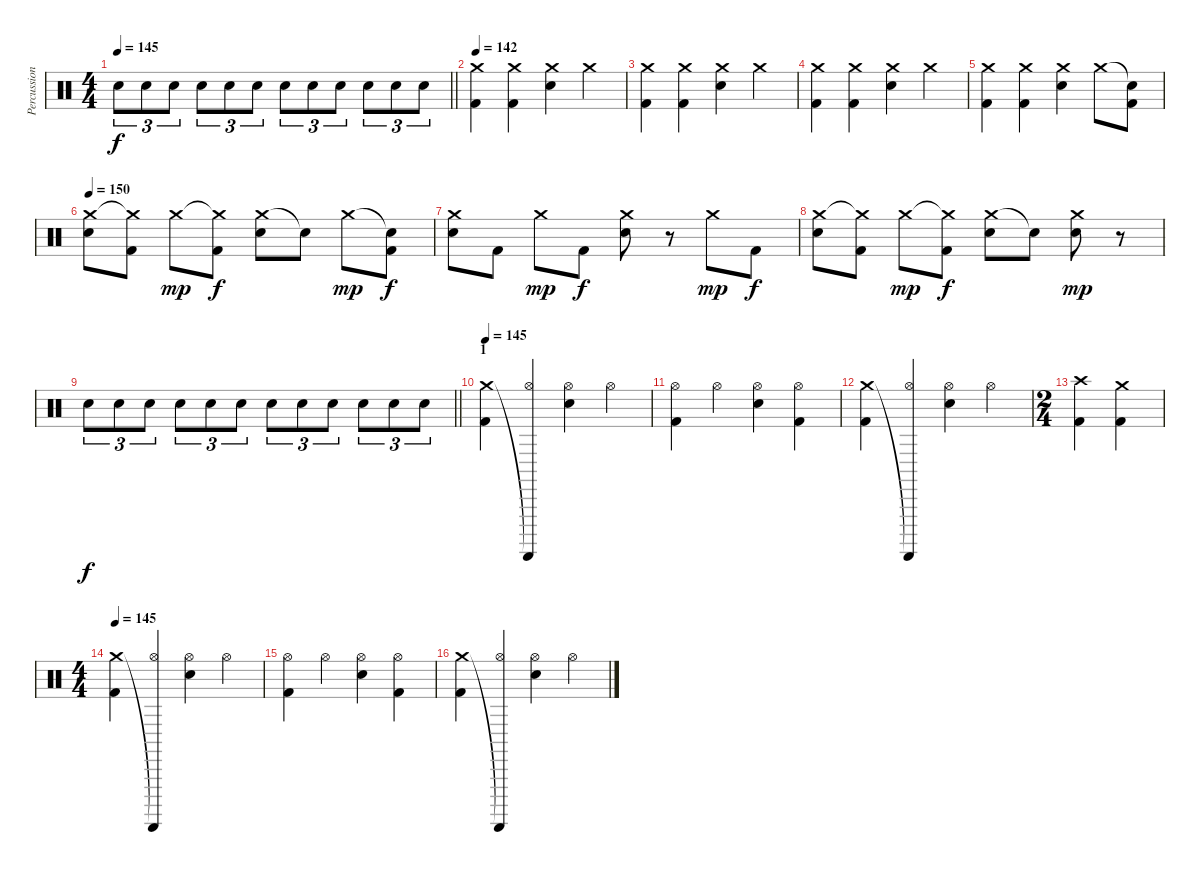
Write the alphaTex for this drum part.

\track ("Percussion" "Percussion") {instrument percussion}
\staff {score}
\articulation defaults
\ts (4 4)
\tempo 145
\clef neutral
\barLineRight lightlight
\ks c "Electric Snare (hit)".8{tu (3 2) dy f} "Electric Snare (hit)".8{tu (3 2)} "Electric Snare (hit)".8{tu (3 2)} "Electric Snare (hit)".8{tu (3 2)} "Electric Snare (hit)".8{tu (3 2)} "Electric Snare (hit)".8{tu (3 2)} "Electric Snare (hit)".8{tu (3 2)} "Electric Snare (hit)".8{tu (3 2)} "Electric Snare (hit)".8{tu (3 2)} "Electric Snare (hit)".8{tu (3 2)} "Electric Snare (hit)".8{tu (3 2)} "Electric Snare (hit)".8{tu (3 2)}
|
\section ("" "")
\tempo 150
\tempo 142
("Crash medium (hit)" "Kick (hit) 2").4 ("Crash medium (hit)" "Kick (hit) 2").4 ("Crash medium (hit)" "Electric Snare (hit)").4 "Crash medium (hit)".4 |
("Crash medium (hit)" "Kick (hit) 2").4 ("Crash medium (hit)" "Kick (hit) 2").4 ("Crash medium (hit)" "Electric Snare (hit)").4 "Crash medium (hit)".4 |
("Crash medium (hit)" "Kick (hit) 2").4 ("Crash medium (hit)" "Kick (hit) 2").4 ("Crash medium (hit)" "Electric Snare (hit)").4 "Crash medium (hit)".4 |
("Crash medium (hit)" "Kick (hit) 2").4 ("Crash medium (hit)" "Kick (hit) 2").4 ("Crash medium (hit)" "Electric Snare (hit)").4 "Crash medium (hit)".8 ("Snare (hit)"{t} "Kick (hit) 2").8 |
\tempo 150
("Crash medium (hit)" "Electric Snare (hit)").8 ("Crash medium (hit)"{t} "Kick (hit) 2").8 "Crash medium (hit)".8{dy mp} ("Crash medium (hit)"{t} "Kick (hit) 2").8{dy f} ("Crash medium (hit)" "Electric Snare (hit)").8 "Snare (hit)"{t}.8 "Crash medium (hit)".8{dy mp} ("Snare (hit)"{t} "Kick (hit) 2").8{dy f} |
("Crash medium (hit)" "Electric Snare (hit)").8 "Kick (hit) 2".8 "Crash medium (hit)".8{dy mp} "Kick (hit) 2".8{dy f} ("Crash medium (hit)" "Electric Snare (hit)").8 r.8 "Crash medium (hit)".8{dy mp} "Kick (hit) 2".8{dy f} |
("Crash medium (hit)" "Electric Snare (hit)").8 ("Crash medium (hit)"{t} "Kick (hit) 2").8 "Crash medium (hit)".8{dy mp} ("Crash medium (hit)"{t} "Kick (hit) 2").8{dy f} ("Crash medium (hit)" "Electric Snare (hit)").8 "Snare (hit)"{t}.8 ("Crash medium (hit)" "Electric Snare (hit)").8{dy mp} r.8 |
\barLineRight lightlight "Electric Snare (hit)".8{tu (3 2) dy f} "Electric Snare (hit)".8{tu (3 2)} "Electric Snare (hit)".8{tu (3 2)} "Electric Snare (hit)".8{tu (3 2)} "Electric Snare (hit)".8{tu (3 2)} "Electric Snare (hit)".8{tu (3 2)} "Electric Snare (hit)".8{tu (3 2)} "Electric Snare (hit)".8{tu (3 2)} "Electric Snare (hit)".8{tu (3 2)} "Electric Snare (hit)".8{tu (3 2)} "Electric Snare (hit)".8{tu (3 2)} "Electric Snare (hit)".8{tu (3 2)}
|
\section ("" "1")
\tempo 145
("Crash medium (hit)" "Kick (hit) 2").4 ("Guiro (scrap-return)"{t} "Hi-Hat (open)").4 ("Hi-Hat (open)" "Electric Snare (hit)").4 "Hi-Hat (open)".4 |
("Hi-Hat (open)" "Kick (hit) 2").4 "Hi-Hat (open)".4 ("Hi-Hat (open)" "Electric Snare (hit)").4 ("Hi-Hat (open)" "Kick (hit) 2").4 |
("Crash medium (hit)" "Kick (hit) 2").4 ("Guiro (scrap-return)"{t} "Hi-Hat (open)").4 ("Hi-Hat (open)" "Electric Snare (hit)").4 "Hi-Hat (open)".4 |
\ts (2 4)
("Kick (hit) 2" "Crash high (hit)").4 ("Kick (hit) 2" "Crash medium (hit)").4 |
\ts (4 4)
\tempo 145
("Crash medium (hit)" "Kick (hit) 2").4 ("Guiro (scrap-return)"{t} "Hi-Hat (open)").4 ("Hi-Hat (open)" "Electric Snare (hit)").4 "Hi-Hat (open)".4 |
("Hi-Hat (open)" "Kick (hit) 2").4 "Hi-Hat (open)".4 ("Hi-Hat (open)" "Electric Snare (hit)").4 ("Hi-Hat (open)" "Kick (hit) 2").4 |
("Crash medium (hit)" "Kick (hit) 2").4 ("Guiro (scrap-return)"{t} "Hi-Hat (open)").4 ("Hi-Hat (open)" "Electric Snare (hit)").4 "Hi-Hat (open)".4
